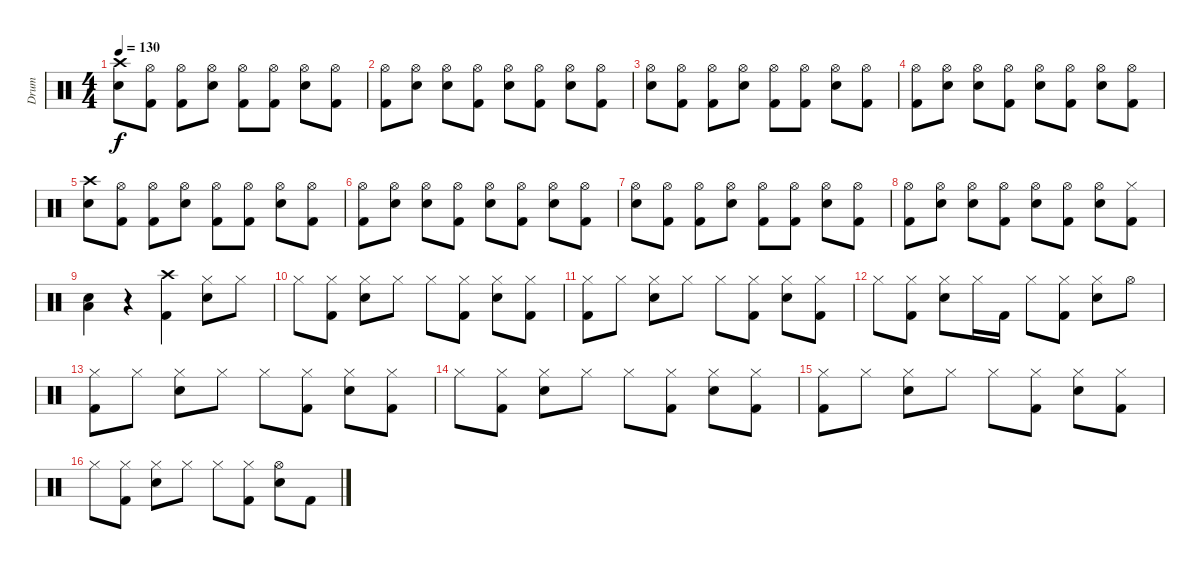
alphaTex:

\track ("Drum" "Drum") {instrument percussion}
\staff {score}
\articulation defaults
\ts (4 4)
\tempo 130
\clef neutral
\ks c
("Crash high (hit)" "Electric Snare (hit)").8{dy f} ("Hi-Hat (open)" "Kick (hit) 2").8 ("Hi-Hat (open)" "Kick (hit) 2").8 ("Hi-Hat (open)" "Electric Snare (hit)").8 ("Hi-Hat (open)" "Kick (hit) 2").8 ("Hi-Hat (open)" "Kick (hit) 2").8 ("Hi-Hat (open)" "Electric Snare (hit)").8 ("Hi-Hat (open)" "Kick (hit) 2").8 |
("Hi-Hat (open)" "Kick (hit) 2").8 ("Hi-Hat (open)" "Electric Snare (hit)").8 ("Hi-Hat (open)" "Electric Snare (hit)").8 ("Hi-Hat (open)" "Kick (hit) 2").8 ("Hi-Hat (open)" "Electric Snare (hit)").8 ("Hi-Hat (open)" "Kick (hit) 2").8 ("Hi-Hat (open)" "Electric Snare (hit)").8 ("Hi-Hat (open)" "Kick (hit) 2").8 |
("Hi-Hat (open)" "Electric Snare (hit)").8 ("Hi-Hat (open)" "Kick (hit) 2").8 ("Hi-Hat (open)" "Kick (hit) 2").8 ("Hi-Hat (open)" "Electric Snare (hit)").8 ("Hi-Hat (open)" "Kick (hit) 2").8 ("Hi-Hat (open)" "Kick (hit) 2").8 ("Hi-Hat (open)" "Electric Snare (hit)").8 ("Hi-Hat (open)" "Kick (hit) 2").8 |
("Hi-Hat (open)" "Kick (hit) 2").8 ("Hi-Hat (open)" "Electric Snare (hit)").8 ("Hi-Hat (open)" "Electric Snare (hit)").8 ("Hi-Hat (open)" "Kick (hit) 2").8 ("Hi-Hat (open)" "Electric Snare (hit)").8 ("Hi-Hat (open)" "Kick (hit) 2").8 ("Hi-Hat (open)" "Electric Snare (hit)").8 ("Hi-Hat (open)" "Kick (hit) 2").8 |
("Crash high (hit)" "Electric Snare (hit)").8 ("Hi-Hat (open)" "Kick (hit) 2").8 ("Hi-Hat (open)" "Kick (hit) 2").8 ("Hi-Hat (open)" "Electric Snare (hit)").8 ("Hi-Hat (open)" "Kick (hit) 2").8 ("Hi-Hat (open)" "Kick (hit) 2").8 ("Hi-Hat (open)" "Electric Snare (hit)").8 ("Hi-Hat (open)" "Kick (hit) 2").8 |
("Hi-Hat (open)" "Kick (hit) 2").8 ("Hi-Hat (open)" "Electric Snare (hit)").8 ("Hi-Hat (open)" "Electric Snare (hit)").8 ("Hi-Hat (open)" "Kick (hit) 2").8 ("Hi-Hat (open)" "Electric Snare (hit)").8 ("Hi-Hat (open)" "Kick (hit) 2").8 ("Hi-Hat (open)" "Electric Snare (hit)").8 ("Hi-Hat (open)" "Kick (hit) 2").8 |
("Hi-Hat (open)" "Electric Snare (hit)").8 ("Hi-Hat (open)" "Kick (hit) 2").8 ("Hi-Hat (open)" "Kick (hit) 2").8 ("Hi-Hat (open)" "Electric Snare (hit)").8 ("Hi-Hat (open)" "Kick (hit) 2").8 ("Hi-Hat (open)" "Kick (hit) 2").8 ("Hi-Hat (open)" "Electric Snare (hit)").8 ("Hi-Hat (open)" "Kick (hit) 2").8 |
("Hi-Hat (open)" "Kick (hit) 2").8 ("Hi-Hat (open)" "Electric Snare (hit)").8 ("Hi-Hat (open)" "Electric Snare (hit)").8 ("Hi-Hat (open)" "Kick (hit) 2").8 ("Hi-Hat (open)" "Electric Snare (hit)").8 ("Hi-Hat (open)" "Kick (hit) 2").8 ("Hi-Hat (open)" "Electric Snare (hit)").8 ("Hi-Hat (closed)" "Kick (hit) 2").8 |
("Electric Snare (hit)" "Low Tom (hit)").4 r.4 ("Crash high (hit)" "Kick (hit) 2").4 ("Hi-Hat (closed)" "Electric Snare (hit)").8 "Hi-Hat (closed)".8 |
"Hi-Hat (closed)".8 ("Hi-Hat (closed)" "Kick (hit) 2").8 ("Hi-Hat (closed)" "Electric Snare (hit)").8 "Hi-Hat (closed)".8 "Hi-Hat (closed)".8 ("Hi-Hat (closed)" "Kick (hit) 2").8 ("Hi-Hat (closed)" "Electric Snare (hit)").8 ("Hi-Hat (closed)" "Kick (hit) 2").8 |
("Hi-Hat (closed)" "Kick (hit) 2").8 "Hi-Hat (closed)".8 ("Hi-Hat (closed)" "Electric Snare (hit)").8 "Hi-Hat (closed)".8 "Hi-Hat (closed)".8 ("Hi-Hat (closed)" "Kick (hit) 2").8 ("Hi-Hat (closed)" "Electric Snare (hit)").8 ("Hi-Hat (closed)" "Kick (hit) 2").8 |
"Hi-Hat (closed)".8 ("Hi-Hat (closed)" "Kick (hit) 2").8 ("Hi-Hat (closed)" "Electric Snare (hit)").8 "Hi-Hat (closed)".16 "Kick (hit) 2".16 "Hi-Hat (closed)".8 ("Hi-Hat (closed)" "Kick (hit) 2").8 ("Hi-Hat (closed)" "Electric Snare (hit)").8 "Hi-Hat (open)".8 |
("Hi-Hat (closed)" "Kick (hit) 2").8 "Hi-Hat (closed)".8 ("Hi-Hat (closed)" "Electric Snare (hit)").8 "Hi-Hat (closed)".8 "Hi-Hat (closed)".8 ("Hi-Hat (closed)" "Kick (hit) 2").8 ("Hi-Hat (closed)" "Electric Snare (hit)").8 ("Hi-Hat (closed)" "Kick (hit) 2").8 |
"Hi-Hat (closed)".8 ("Hi-Hat (closed)" "Kick (hit) 2").8 ("Hi-Hat (closed)" "Electric Snare (hit)").8 "Hi-Hat (closed)".8 "Hi-Hat (closed)".8 ("Hi-Hat (closed)" "Kick (hit) 2").8 ("Hi-Hat (closed)" "Electric Snare (hit)").8 ("Hi-Hat (closed)" "Kick (hit) 2").8 |
("Hi-Hat (closed)" "Kick (hit) 2").8 "Hi-Hat (closed)".8 ("Hi-Hat (closed)" "Electric Snare (hit)").8 "Hi-Hat (closed)".8 "Hi-Hat (closed)".8 ("Hi-Hat (closed)" "Kick (hit) 2").8 ("Hi-Hat (closed)" "Electric Snare (hit)").8 ("Hi-Hat (closed)" "Kick (hit) 2").8 |
"Hi-Hat (closed)".8 ("Hi-Hat (closed)" "Kick (hit) 2").8 ("Hi-Hat (closed)" "Electric Snare (hit)").8 "Hi-Hat (closed)".8 "Hi-Hat (closed)".8 ("Hi-Hat (closed)" "Kick (hit) 2").8 ("Hi-Hat (open)" "Electric Snare (hit)").8 "Kick (hit) 2".8
